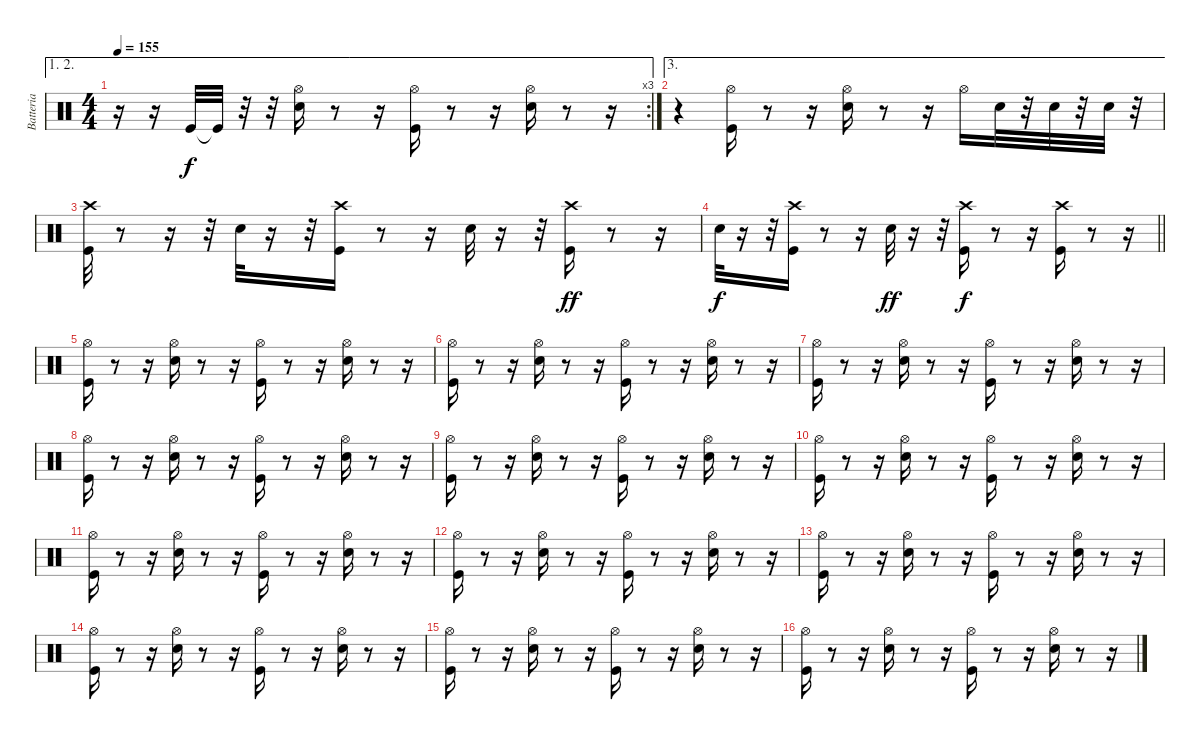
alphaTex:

\track ("Batteria" "Batteria") {instrument percussion bank 20}
\staff {score}
\articulation defaults
\ae (1 2)
\rc 3
\ts (4 4)
\tempo 155
\clef neutral
\ks c
r.16{dy f} r.16 "Kick (hit)".32 "Kick (hit)"{t}.32 r.32 r.32 ("Hi-Hat (open)" "Snare (hit) 2").16 r.8 r.16 ("Hi-Hat (open)" "Kick (hit)").16 r.8 r.16 ("Hi-Hat (open)" "Snare (hit) 2").16 r.8 r.16 |
\ae 3
r.4 ("Hi-Hat (open)" "Kick (hit)").16 r.8 r.16 ("Hi-Hat (open)" "Snare (hit) 2").16 r.8 r.16 "Hi-Hat (open)".16 "Snare (hit) 2".32 r.32 "Snare (hit) 2".32 r.32 "Snare (hit) 2".32 r.32 |
("Kick (hit)" "Crash high (hit)").32 r.8 r.16 r.32 "Snare (hit) 2".32 r.16 r.32 ("Kick (hit)" "Crash high (hit)").16 r.8 r.16 "Snare (hit) 2".32 r.16 r.32 ("Kick (hit)" "Crash high (hit)").16{dy ff} r.8 r.16 |
\barLineRight lightlight "Snare (hit) 2".32{dy f}
r.16 r.32 ("Kick (hit)" "Crash high (hit)").16 r.8 r.16 "Snare (hit) 2".32{dy ff} r.16 r.32 ("Kick (hit)" "Crash high (hit)").16{dy f} r.8 r.16 ("Kick (hit)" "Crash high (hit)").16 r.8 r.16 |
("Hi-Hat (open)" "Kick (hit)").16 r.8 r.16 ("Hi-Hat (open)" "Snare (hit) 2").16 r.8 r.16 ("Kick (hit)" "Hi-Hat (open)").16 r.8 r.16 ("Snare (hit) 2" "Hi-Hat (open)").16 r.8 r.16 |
("Hi-Hat (open)" "Kick (hit)").16 r.8 r.16 ("Hi-Hat (open)" "Snare (hit) 2").16 r.8 r.16 ("Kick (hit)" "Hi-Hat (open)").16 r.8 r.16 ("Snare (hit) 2" "Hi-Hat (open)").16 r.8 r.16 |
("Hi-Hat (open)" "Kick (hit)").16 r.8 r.16 ("Hi-Hat (open)" "Snare (hit) 2").16 r.8 r.16 ("Kick (hit)" "Hi-Hat (open)").16 r.8 r.16 ("Snare (hit) 2" "Hi-Hat (open)").16 r.8 r.16 |
("Hi-Hat (open)" "Kick (hit)").16 r.8 r.16 ("Hi-Hat (open)" "Snare (hit) 2").16 r.8 r.16 ("Kick (hit)" "Hi-Hat (open)").16 r.8 r.16 ("Snare (hit) 2" "Hi-Hat (open)").16 r.8 r.16 |
("Hi-Hat (open)" "Kick (hit)").16 r.8 r.16 ("Hi-Hat (open)" "Snare (hit) 2").16 r.8 r.16 ("Kick (hit)" "Hi-Hat (open)").16 r.8 r.16 ("Snare (hit) 2" "Hi-Hat (open)").16 r.8 r.16 |
("Hi-Hat (open)" "Kick (hit)").16 r.8 r.16 ("Hi-Hat (open)" "Snare (hit) 2").16 r.8 r.16 ("Kick (hit)" "Hi-Hat (open)").16 r.8 r.16 ("Snare (hit) 2" "Hi-Hat (open)").16 r.8 r.16 |
("Hi-Hat (open)" "Kick (hit)").16 r.8 r.16 ("Hi-Hat (open)" "Snare (hit) 2").16 r.8 r.16 ("Kick (hit)" "Hi-Hat (open)").16 r.8 r.16 ("Snare (hit) 2" "Hi-Hat (open)").16 r.8 r.16 |
("Hi-Hat (open)" "Kick (hit)").16 r.8 r.16 ("Hi-Hat (open)" "Snare (hit) 2").16 r.8 r.16 ("Kick (hit)" "Hi-Hat (open)").16 r.8 r.16 ("Snare (hit) 2" "Hi-Hat (open)").16 r.8 r.16 |
("Hi-Hat (open)" "Kick (hit)").16 r.8 r.16 ("Hi-Hat (open)" "Snare (hit) 2").16 r.8 r.16 ("Kick (hit)" "Hi-Hat (open)").16 r.8 r.16 ("Snare (hit) 2" "Hi-Hat (open)").16 r.8 r.16 |
("Hi-Hat (open)" "Kick (hit)").16 r.8 r.16 ("Hi-Hat (open)" "Snare (hit) 2").16 r.8 r.16 ("Kick (hit)" "Hi-Hat (open)").16 r.8 r.16 ("Snare (hit) 2" "Hi-Hat (open)").16 r.8 r.16 |
("Hi-Hat (open)" "Kick (hit)").16 r.8 r.16 ("Hi-Hat (open)" "Snare (hit) 2").16 r.8 r.16 ("Kick (hit)" "Hi-Hat (open)").16 r.8 r.16 ("Snare (hit) 2" "Hi-Hat (open)").16 r.8 r.16 |
("Hi-Hat (open)" "Kick (hit)").16 r.8 r.16 ("Hi-Hat (open)" "Snare (hit) 2").16 r.8 r.16 ("Kick (hit)" "Hi-Hat (open)").16 r.8 r.16 ("Snare (hit) 2" "Hi-Hat (open)").16 r.8 r.16
